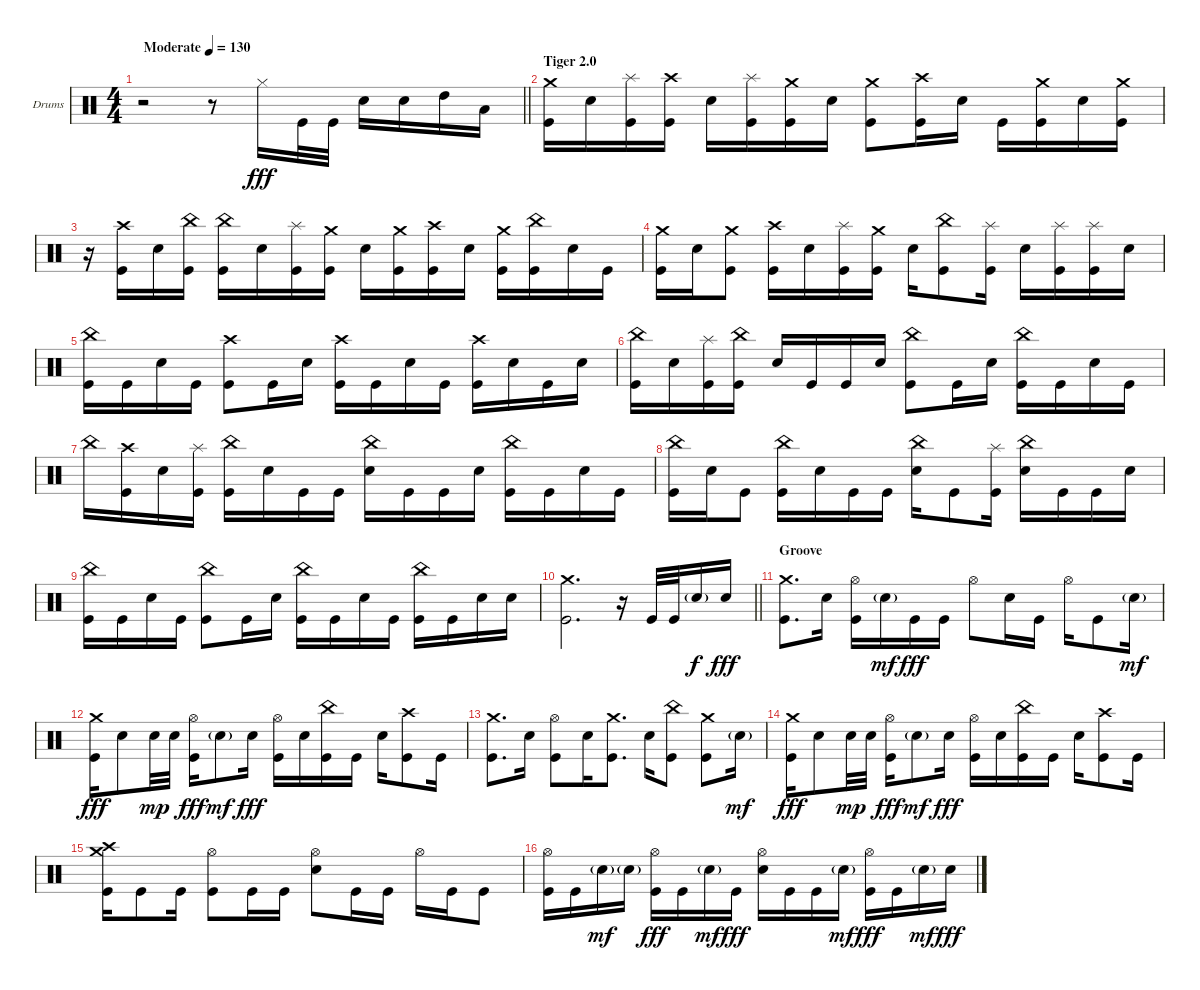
\bracketExtendMode groupsimilarinstruments
\firstSystemTrackNameOrientation horizontal
\otherSystemsTrackNameOrientation horizontal
\track ("Drumkit" "Drums") {instrument percussion}
\staff {score}
\articulation defaults
\ts (4 4)
\beaming (8 2 2 2 2)
\tempo (130 "Moderate")
\clef neutral
\barLineRight lightlight
\ks c
r.2{dy fff} r.8 "Hi-Hat (closed)".16 "Kick (hit)".32 "Kick (hit)".32 "Snare (hit) 2".16 "Snare (hit) 2".16 "High Tom (hit)".16 "Low Tom (hit)".16 |
\section ("" "Tiger 2.0")
("Crash medium (hit)" "Kick (hit)").16 "Snare (hit) 2".16 ("Splash (hit)" "Kick (hit)").16 ("Crash high (hit)" "Kick (hit)").16 "Snare (hit) 2".16 ("Splash (hit)" "Kick (hit)").16 ("Crash medium (hit)" "Kick (hit)").16 "Snare (hit) 2".16 ("Crash medium (hit)" "Kick (hit)").8 ("Crash high (hit)" "Kick (hit)").16 "Snare (hit) 2".16 "Kick (hit)".16 ("Crash medium (hit)" "Kick (hit)").16 "Snare (hit) 2".16 ("Crash medium (hit)" "Kick (hit)").16 |
r.16 ("Crash high (hit)" "Kick (hit)").16 "Snare (hit) 2".16 ("China (hit)" "Kick (hit)").16 ("China (hit)" "Kick (hit)").16 "Snare (hit) 2".16 ("Splash (hit)" "Kick (hit)").16 ("Crash medium (hit)" "Kick (hit)").16 "Snare (hit) 2".16 ("Crash medium (hit)" "Kick (hit)").16 ("Crash high (hit)" "Kick (hit)").16 "Snare (hit) 2".16 ("Crash medium (hit)" "Kick (hit)").16 ("China (hit)" "Kick (hit)").16 "Snare (hit) 2".16 "Kick (hit)".16 |
("Crash medium (hit)" "Kick (hit)").16 "Snare (hit) 2".16 ("Crash medium (hit)" "Kick (hit)").8 ("Crash high (hit)" "Kick (hit)").16 "Snare (hit) 2".16 ("Splash (hit)" "Kick (hit)").16 ("Crash medium (hit)" "Kick (hit)").16 "Snare (hit) 2".16 ("China (hit)" "Kick (hit)").8 ("Splash (hit)" "Kick (hit)").16 "Snare (hit) 2".16 ("Splash (hit)" "Kick (hit)").16 ("Splash (hit)" "Kick (hit)").16 "Snare (hit) 2".16 |
("China (hit)" "Kick (hit)").16 "Kick (hit)".16 "Snare (hit) 2".16 "Kick (hit)".16 ("Crash high (hit)" "Kick (hit)").8 "Kick (hit)".16 "Snare (hit) 2".16 ("Crash high (hit)" "Kick (hit)").16 "Kick (hit)".16 "Snare (hit) 2".16 "Kick (hit)".16 ("Crash high (hit)" "Kick (hit)").16 "Snare (hit) 2".16 "Kick (hit)".16 "Snare (hit) 2".16 |
("China (hit)" "Kick (hit)").16 "Snare (hit) 2".16 ("Splash (hit)" "Kick (hit)").16 ("China (hit)" "Kick (hit)").16 "Snare (hit) 2".16 "Kick (hit)".16 "Kick (hit)".16 "Snare (hit) 2".16 ("China (hit)" "Kick (hit)").8 "Kick (hit)".16 "Snare (hit) 2".16 ("China (hit)" "Kick (hit)").16 "Kick (hit)".16 "Snare (hit) 2".16 "Kick (hit)".16 |
"China (hit)".16 ("Crash high (hit)" "Kick (hit)").16 "Snare (hit) 2".16 ("Splash (hit)" "Kick (hit)").16 ("China (hit)" "Kick (hit)").16 "Snare (hit) 2".16 "Kick (hit)".16 "Kick (hit)".16 ("China (hit)" "Snare (hit) 2").16 "Kick (hit)".16 "Kick (hit)".16 "Snare (hit) 2".16 ("China (hit)" "Kick (hit)").16 "Kick (hit)".16 "Snare (hit) 2".16 "Kick (hit)".16 |
("China (hit)" "Kick (hit)").16 "Snare (hit) 2".16 "Kick (hit)".8 ("China (hit)" "Kick (hit)").16 "Snare (hit) 2".16 "Kick (hit)".16 "Kick (hit)".16 ("China (hit)" "Snare (hit) 2").16 "Kick (hit)".8 ("Splash (hit)" "Kick (hit)").16 ("China (hit)" "Snare (hit) 2").16 "Kick (hit)".16 "Kick (hit)".16 "Snare (hit) 2".16 |
("China (hit)" "Kick (hit)").16 "Kick (hit)".16 "Snare (hit) 2".16 "Kick (hit)".16 ("China (hit)" "Kick (hit)").8 "Kick (hit)".16 "Snare (hit) 2".16 ("China (hit)" "Kick (hit)").16 "Kick (hit)".16 "Snare (hit) 2".16 "Kick (hit)".16 ("China (hit)" "Kick (hit)").16 "Kick (hit)".16 "Snare (hit) 2".16 "Snare (hit) 2".16 |
\barLineRight lightlight
("Crash medium (hit)" "Kick (hit)").2{d} r.16 "Kick (hit)".32 "Kick (hit)".32 "Snare (hit) 2"{g}.16{dy f} "Snare (hit) 2".16{dy fff} |
\section ("" "Groove")
("Crash medium (hit)" "Kick (hit)").8{d} "Snare (hit) 2".16 ("Hi-Hat (open)" "Kick (hit)").16 "Snare (hit) 2"{g}.16{dy mf} "Kick (hit)".16{dy fff} "Kick (hit)".16 "Hi-Hat (open)".8 "Snare (hit) 2".16 "Kick (hit)".16 "Hi-Hat (open)".16 "Kick (hit)".8 "Snare (hit) 2"{g}.16{dy mf} |
("Crash medium (hit)" "Kick (hit)").16{dy fff} "Snare (hit) 2".8 "Snare (hit) 2".32{dy mp} "Snare (hit) 2".32 ("Hi-Hat (open)" "Kick (hit)").16{dy fff} "Snare (hit) 2"{g}.8{dy mf} "Snare (hit) 2".16{dy fff} ("Hi-Hat (open)" "Kick (hit)").16 "Snare (hit) 2".16 ("China (hit)" "Kick (hit)").16 "Kick (hit)".16 "Snare (hit) 2".16 ("Crash high (hit)" "Kick (hit)").8 "Kick (hit)".16 |
("Crash medium (hit)" "Kick (hit)").8{d} "Snare (hit) 2".16 ("Hi-Hat (open)" "Kick (hit)").8 "Snare (hit) 2".16 ("Crash medium (hit)" "Kick (hit)").8{d} "Snare (hit) 2".16 ("China (hit)" "Kick (hit)").8 ("Crash medium (hit)" "Kick (hit)").8 "Snare (hit) 2"{g}.16{dy mf} |
("Crash medium (hit)" "Kick (hit)").16{dy fff} "Snare (hit) 2".8 "Snare (hit) 2".32{dy mp} "Snare (hit) 2".32 ("Hi-Hat (open)" "Kick (hit)").16{dy fff} "Snare (hit) 2"{g}.8{dy mf} "Snare (hit) 2".16{dy fff} ("Hi-Hat (open)" "Kick (hit)").16 "Snare (hit) 2".16 ("China (hit)" "Kick (hit)").16 "Kick (hit)".16 "Snare (hit) 2".16 ("Crash high (hit)" "Kick (hit)").8 "Kick (hit)".16 |
("Crash medium (hit)" "Crash high (hit)" "Kick (hit)").16 "Kick (hit)".8 "Kick (hit)".16 ("Hi-Hat (open)" "Kick (hit)").8 "Kick (hit)".16 "Kick (hit)".16 ("Hi-Hat (open)" "Snare (hit) 2").8 "Kick (hit)".16 "Kick (hit)".16 "Hi-Hat (open)".16 "Kick (hit)".16 "Kick (hit)".8 |
("Hi-Hat (open)" "Kick (hit)").16 "Kick (hit)".16 "Snare (hit) 2"{g}.16{dy mf} "Snare (hit) 2"{g}.16 ("Hi-Hat (open)" "Kick (hit)").16{dy fff} "Kick (hit)".16 "Snare (hit) 2"{g}.16{dy mf} "Kick (hit)".16{dy fff} ("Hi-Hat (open)" "Snare (hit) 2").16 "Kick (hit)".16 "Kick (hit)".16 "Snare (hit) 2"{g}.16{dy mf} ("Hi-Hat (open)" "Kick (hit)").16{dy fff} "Kick (hit)".16 "Snare (hit) 2"{g}.16{dy mf} "Snare (hit) 2".16{dy fff}
